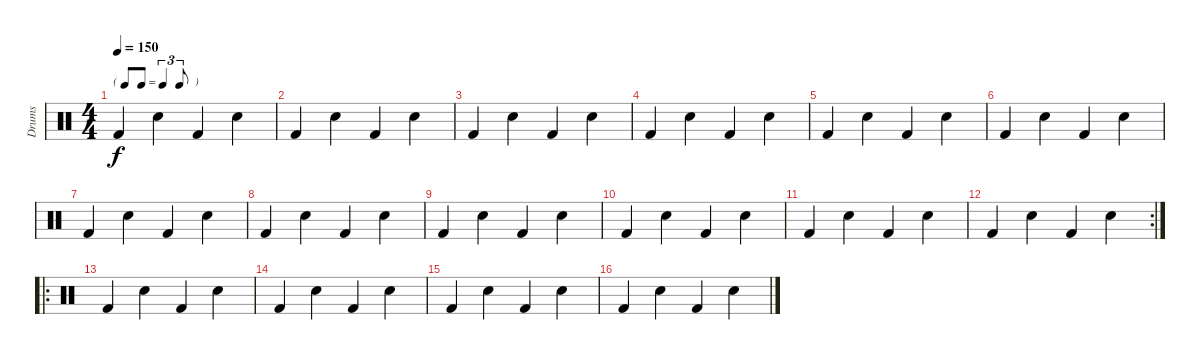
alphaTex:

\track ("Drums" "Drums") {instrument percussion}
\staff {score}
\articulation defaults
\ts (4 4)
\tf triplet8th
\tempo 150
\clef neutral
\ks c "Kick (hit) 2".4{dy f} "Snare (hit) 2".4 "Kick (hit) 2".4 "Snare (hit) 2".4
|
"Kick (hit) 2".4 "Snare (hit) 2".4 "Kick (hit) 2".4 "Snare (hit) 2".4 |
"Kick (hit) 2".4 "Snare (hit) 2".4 "Kick (hit) 2".4 "Snare (hit) 2".4 |
"Kick (hit) 2".4 "Snare (hit) 2".4 "Kick (hit) 2".4 "Snare (hit) 2".4 |
"Kick (hit) 2".4 "Snare (hit) 2".4 "Kick (hit) 2".4 "Snare (hit) 2".4 |
"Kick (hit) 2".4 "Snare (hit) 2".4 "Kick (hit) 2".4 "Snare (hit) 2".4 |
"Kick (hit) 2".4 "Snare (hit) 2".4 "Kick (hit) 2".4 "Snare (hit) 2".4 |
"Kick (hit) 2".4 "Snare (hit) 2".4 "Kick (hit) 2".4 "Snare (hit) 2".4 |
"Kick (hit) 2".4 "Snare (hit) 2".4 "Kick (hit) 2".4 "Snare (hit) 2".4 |
"Kick (hit) 2".4 "Snare (hit) 2".4 "Kick (hit) 2".4 "Snare (hit) 2".4 |
"Kick (hit) 2".4 "Snare (hit) 2".4 "Kick (hit) 2".4 "Snare (hit) 2".4 |
\rc 2 "Kick (hit) 2".4 "Snare (hit) 2".4 "Kick (hit) 2".4 "Snare (hit) 2".4
|
\ro "Kick (hit) 2".4 "Snare (hit) 2".4 "Kick (hit) 2".4 "Snare (hit) 2".4
|
"Kick (hit) 2".4 "Snare (hit) 2".4 "Kick (hit) 2".4 "Snare (hit) 2".4 |
"Kick (hit) 2".4 "Snare (hit) 2".4 "Kick (hit) 2".4 "Snare (hit) 2".4 |
"Kick (hit) 2".4 "Snare (hit) 2".4 "Kick (hit) 2".4 "Snare (hit) 2".4
